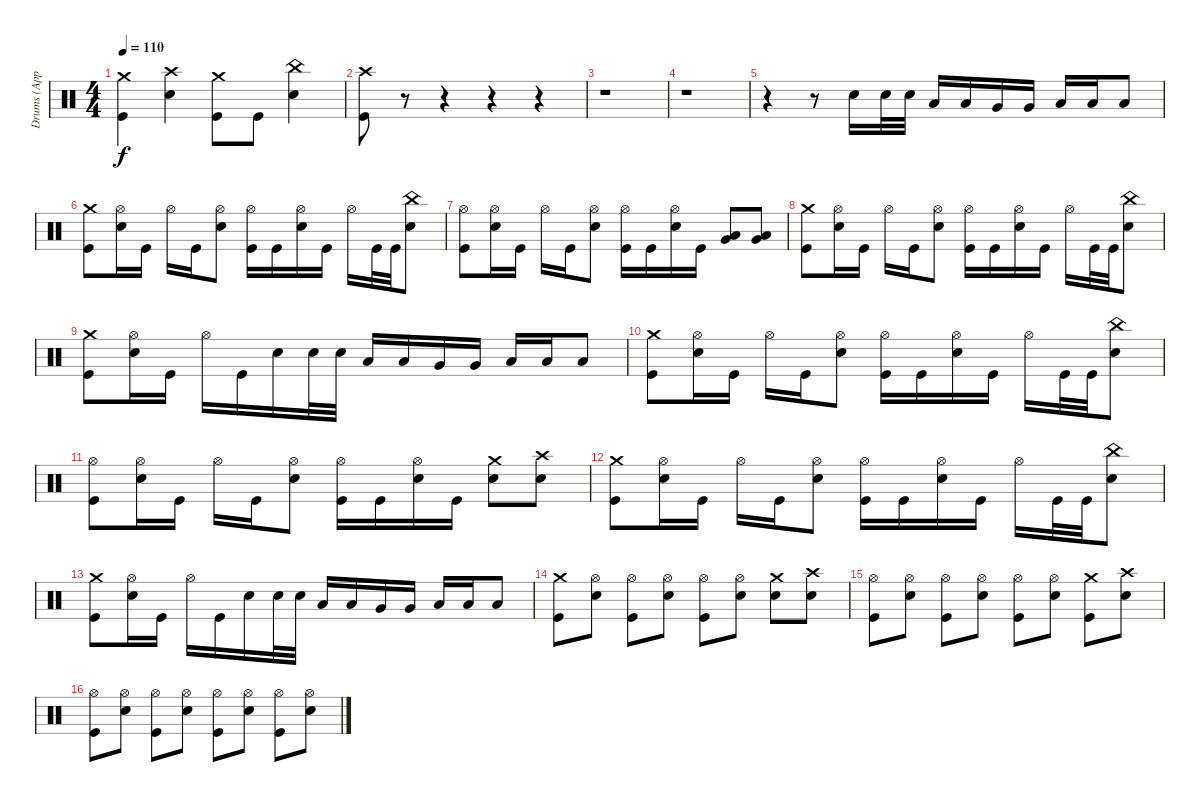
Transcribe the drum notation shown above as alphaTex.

\track ("Drums (Appelhans/Durst)" "Drums (App") {instrument percussion}
\staff {score}
\articulation defaults
\ts (4 4)
\tempo 110
\clef neutral
\ks c
("Kick (hit)" "Crash medium (hit)").4{dy f} ("Snare (hit) 2" "Crash high (hit)").4 ("Kick (hit)" "Crash medium (hit)").8 "Kick (hit)".8 ("Snare (hit) 2" "China (hit)").4 |
("Kick (hit)" "Crash high (hit)").8 r.8 r.4 r.4 r.4 |
r.1 |
r.1 |
r.4 r.8 "Snare (hit) 2".16 "Snare (hit) 2".32 "Snare (hit) 2".32 "Low Tom (hit)".16 "Low Tom (hit)".16 "Very Low Tom (hit)".16 "Very Low Tom (hit)".16 "Low Floor Tom (hit)".16 "Low Floor Tom (hit)".16 "Low Floor Tom (hit)".8 |
("Kick (hit)" "Crash medium (hit)").8 ("Hi-Hat (open)" "Snare (hit) 2").16 "Kick (hit)".16 "Hi-Hat (open)".16 "Kick (hit)".16 ("Snare (hit) 2" "Hi-Hat (open)").8 ("Kick (hit)" "Hi-Hat (open)").16 "Kick (hit)".16 ("Snare (hit) 2" "Hi-Hat (open)").16 "Kick (hit)".16 "Hi-Hat (open)".16 "Kick (hit)".32 "Kick (hit)".32 ("Snare (hit) 2" "China (hit)").8 |
("Kick (hit)" "Hi-Hat (open)").8 ("Hi-Hat (open)" "Snare (hit) 2").16 "Kick (hit)".16 "Hi-Hat (open)".16 "Kick (hit)".16 ("Snare (hit) 2" "Hi-Hat (open)").8 ("Kick (hit)" "Hi-Hat (open)").16 "Kick (hit)".16 ("Snare (hit) 2" "Hi-Hat (open)").16 "Kick (hit)".16 ("Low Tom (hit)" "Very Low Tom (hit)").8 ("Very Low Tom (hit)" "Low Tom (hit)").8 |
("Kick (hit)" "Crash medium (hit)").8 ("Hi-Hat (open)" "Snare (hit) 2").16 "Kick (hit)".16 "Hi-Hat (open)".16 "Kick (hit)".16 ("Snare (hit) 2" "Hi-Hat (open)").8 ("Kick (hit)" "Hi-Hat (open)").16 "Kick (hit)".16 ("Snare (hit) 2" "Hi-Hat (open)").16 "Kick (hit)".16 "Hi-Hat (open)".16 "Kick (hit)".32 "Kick (hit)".32 ("Snare (hit) 2" "China (hit)").8 |
("Kick (hit)" "Crash medium (hit)").8 ("Hi-Hat (open)" "Snare (hit) 2").16 "Kick (hit)".16 "Hi-Hat (open)".16 "Kick (hit)".16 "Snare (hit) 2".16 "Snare (hit) 2".32 "Snare (hit) 2".32 "Low Tom (hit)".16 "Low Tom (hit)".16 "Very Low Tom (hit)".16 "Very Low Tom (hit)".16 "Low Floor Tom (hit)".16 "Low Floor Tom (hit)".16 "Low Floor Tom (hit)".8 |
("Kick (hit)" "Crash medium (hit)").8 ("Hi-Hat (open)" "Snare (hit) 2").16 "Kick (hit)".16 "Hi-Hat (open)".16 "Kick (hit)".16 ("Snare (hit) 2" "Hi-Hat (open)").8 ("Kick (hit)" "Hi-Hat (open)").16 "Kick (hit)".16 ("Snare (hit) 2" "Hi-Hat (open)").16 "Kick (hit)".16 "Hi-Hat (open)".16 "Kick (hit)".32 "Kick (hit)".32 ("Snare (hit) 2" "China (hit)").8 |
("Kick (hit)" "Hi-Hat (open)").8 ("Hi-Hat (open)" "Snare (hit) 2").16 "Kick (hit)".16 "Hi-Hat (open)".16 "Kick (hit)".16 ("Snare (hit) 2" "Hi-Hat (open)").8 ("Kick (hit)" "Hi-Hat (open)").16 "Kick (hit)".16 ("Snare (hit) 2" "Hi-Hat (open)").16 "Kick (hit)".16 ("Snare (hit) 2" "Crash medium (hit)").8 ("Snare (hit) 2" "Crash high (hit)").8 |
("Kick (hit)" "Crash medium (hit)").8 ("Hi-Hat (open)" "Snare (hit) 2").16 "Kick (hit)".16 "Hi-Hat (open)".16 "Kick (hit)".16 ("Snare (hit) 2" "Hi-Hat (open)").8 ("Kick (hit)" "Hi-Hat (open)").16 "Kick (hit)".16 ("Snare (hit) 2" "Hi-Hat (open)").16 "Kick (hit)".16 "Hi-Hat (open)".16 "Kick (hit)".32 "Kick (hit)".32 ("Snare (hit) 2" "China (hit)").8 |
("Kick (hit)" "Crash medium (hit)").8 ("Hi-Hat (open)" "Snare (hit) 2").16 "Kick (hit)".16 "Hi-Hat (open)".16 "Kick (hit)".16 "Snare (hit) 2".16 "Snare (hit) 2".32 "Snare (hit) 2".32 "Low Tom (hit)".16 "Low Tom (hit)".16 "Very Low Tom (hit)".16 "Very Low Tom (hit)".16 "Low Floor Tom (hit)".16 "Low Floor Tom (hit)".16 "Low Floor Tom (hit)".8 |
("Kick (hit)" "Crash medium (hit)").8 ("Hi-Hat (open)" "Snare (hit) 2").8 ("Hi-Hat (open)" "Kick (hit)").8 ("Hi-Hat (open)" "Snare (hit) 2").8 ("Hi-Hat (open)" "Kick (hit)").8 ("Hi-Hat (open)" "Snare (hit) 2").8 ("Snare (hit) 2" "Crash medium (hit)").8 ("Snare (hit) 2" "Crash high (hit)").8 |
("Hi-Hat (open)" "Kick (hit)").8 ("Hi-Hat (open)" "Snare (hit) 2").8 ("Hi-Hat (open)" "Kick (hit)").8 ("Hi-Hat (open)" "Snare (hit) 2").8 ("Hi-Hat (open)" "Kick (hit)").8 ("Hi-Hat (open)" "Snare (hit) 2").8 ("Kick (hit)" "Crash medium (hit)").8 ("Snare (hit) 2" "Crash high (hit)").8 |
("Hi-Hat (open)" "Kick (hit)").8 ("Hi-Hat (open)" "Snare (hit) 2").8 ("Hi-Hat (open)" "Kick (hit)").8 ("Hi-Hat (open)" "Snare (hit) 2").8 ("Hi-Hat (open)" "Kick (hit)").8 ("Hi-Hat (open)" "Snare (hit) 2").8 ("Hi-Hat (open)" "Kick (hit)").8 ("Hi-Hat (open)" "Snare (hit) 2").8
